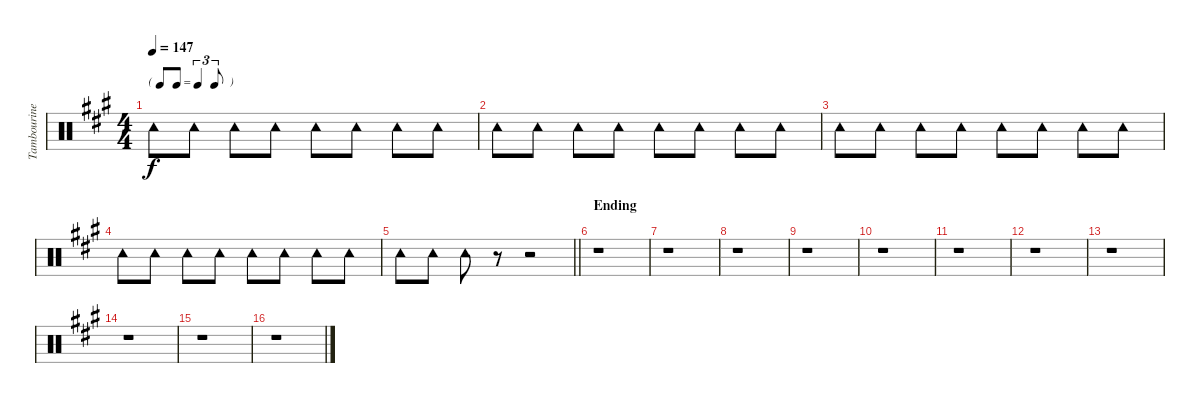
\track ("Tambourine" "Tambourine") {instrument percussion}
\staff {score}
\articulation defaults
\ts (4 4)
\tf triplet8th
\tempo 147
\clef neutral
\ks a "Tambourine (hit)".8{dy f} "Tambourine (hit)".8 "Tambourine (hit)".8 "Tambourine (hit)".8 "Tambourine (hit)".8 "Tambourine (hit)".8 "Tambourine (hit)".8 "Tambourine (hit)".8
|
"Tambourine (hit)".8 "Tambourine (hit)".8 "Tambourine (hit)".8 "Tambourine (hit)".8 "Tambourine (hit)".8 "Tambourine (hit)".8 "Tambourine (hit)".8 "Tambourine (hit)".8 |
"Tambourine (hit)".8 "Tambourine (hit)".8 "Tambourine (hit)".8 "Tambourine (hit)".8 "Tambourine (hit)".8 "Tambourine (hit)".8 "Tambourine (hit)".8 "Tambourine (hit)".8 |
"Tambourine (hit)".8 "Tambourine (hit)".8 "Tambourine (hit)".8 "Tambourine (hit)".8 "Tambourine (hit)".8 "Tambourine (hit)".8 "Tambourine (hit)".8 "Tambourine (hit)".8 |
\barLineRight lightlight "Tambourine (hit)".8 "Tambourine (hit)".8 "Tambourine (hit)".8
r.8 r.2 |
\section ("" "Ending")
r.1 |
r.1 |
r.1 |
r.1 |
r.1 |
r.1 |
r.1 |
r.1 |
r.1 |
r.1 |
r.1
